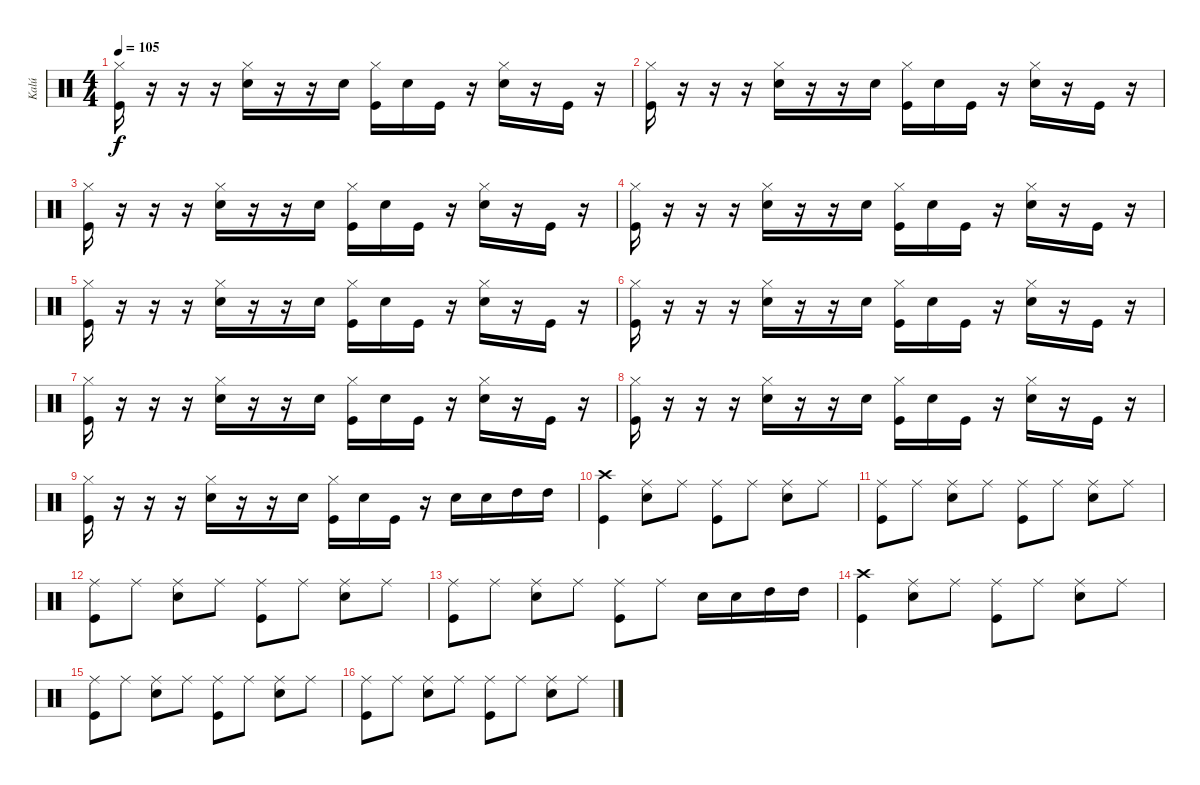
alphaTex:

\track ("Kalú" "Kalú") {instrument percussion}
\staff {score}
\articulation defaults
\ts (4 4)
\tempo 105
\clef neutral
\ks c
("Hi-Hat (closed)" "Kick (hit)").16{dy f} r.16 r.16 r.16 ("Hi-Hat (closed)" "Electric Snare (hit)").16 r.16 r.16 "Electric Snare (hit)".16 ("Hi-Hat (closed)" "Kick (hit)").16 "Electric Snare (hit)".16 "Kick (hit)".16 r.16 ("Hi-Hat (closed)" "Electric Snare (hit)").16 r.16 "Kick (hit)".16 r.16 |
("Hi-Hat (closed)" "Kick (hit)").16 r.16 r.16 r.16 ("Hi-Hat (closed)" "Electric Snare (hit)").16 r.16 r.16 "Electric Snare (hit)".16 ("Hi-Hat (closed)" "Kick (hit)").16 "Electric Snare (hit)".16 "Kick (hit)".16 r.16 ("Hi-Hat (closed)" "Electric Snare (hit)").16 r.16 "Kick (hit)".16 r.16 |
("Hi-Hat (closed)" "Kick (hit)").16 r.16 r.16 r.16 ("Hi-Hat (closed)" "Electric Snare (hit)").16 r.16 r.16 "Electric Snare (hit)".16 ("Hi-Hat (closed)" "Kick (hit)").16 "Electric Snare (hit)".16 "Kick (hit)".16 r.16 ("Hi-Hat (closed)" "Electric Snare (hit)").16 r.16 "Kick (hit)".16 r.16 |
("Hi-Hat (closed)" "Kick (hit)").16 r.16 r.16 r.16 ("Hi-Hat (closed)" "Electric Snare (hit)").16 r.16 r.16 "Electric Snare (hit)".16 ("Hi-Hat (closed)" "Kick (hit)").16 "Electric Snare (hit)".16 "Kick (hit)".16 r.16 ("Hi-Hat (closed)" "Electric Snare (hit)").16 r.16 "Kick (hit)".16 r.16 |
("Hi-Hat (closed)" "Kick (hit)").16 r.16 r.16 r.16 ("Hi-Hat (closed)" "Electric Snare (hit)").16 r.16 r.16 "Electric Snare (hit)".16 ("Hi-Hat (closed)" "Kick (hit)").16 "Electric Snare (hit)".16 "Kick (hit)".16 r.16 ("Hi-Hat (closed)" "Electric Snare (hit)").16 r.16 "Kick (hit)".16 r.16 |
("Hi-Hat (closed)" "Kick (hit)").16 r.16 r.16 r.16 ("Hi-Hat (closed)" "Electric Snare (hit)").16 r.16 r.16 "Electric Snare (hit)".16 ("Hi-Hat (closed)" "Kick (hit)").16 "Electric Snare (hit)".16 "Kick (hit)".16 r.16 ("Hi-Hat (closed)" "Electric Snare (hit)").16 r.16 "Kick (hit)".16 r.16 |
("Hi-Hat (closed)" "Kick (hit)").16 r.16 r.16 r.16 ("Hi-Hat (closed)" "Electric Snare (hit)").16 r.16 r.16 "Electric Snare (hit)".16 ("Hi-Hat (closed)" "Kick (hit)").16 "Electric Snare (hit)".16 "Kick (hit)".16 r.16 ("Hi-Hat (closed)" "Electric Snare (hit)").16 r.16 "Kick (hit)".16 r.16 |
("Hi-Hat (closed)" "Kick (hit)").16 r.16 r.16 r.16 ("Hi-Hat (closed)" "Electric Snare (hit)").16 r.16 r.16 "Electric Snare (hit)".16 ("Hi-Hat (closed)" "Kick (hit)").16 "Electric Snare (hit)".16 "Kick (hit)".16 r.16 ("Hi-Hat (closed)" "Electric Snare (hit)").16 r.16 "Kick (hit)".16 r.16 |
("Hi-Hat (closed)" "Kick (hit)").16 r.16 r.16 r.16 ("Hi-Hat (closed)" "Electric Snare (hit)").16 r.16 r.16 "Electric Snare (hit)".16 ("Hi-Hat (closed)" "Kick (hit)").16 "Electric Snare (hit)".16 "Kick (hit)".16 r.16 "Electric Snare (hit)".16 "Electric Snare (hit)".16 "High Tom (hit)".16 "High Tom (hit)".16 |
("Crash high (hit)" "Kick (hit)").4 ("Ride (middle)" "Electric Snare (hit)").8 "Ride (middle)".8 ("Ride (middle)" "Kick (hit)").8 "Ride (middle)".8 ("Ride (middle)" "Electric Snare (hit)").8 "Ride (middle)".8 |
("Ride (middle)" "Kick (hit)").8 "Ride (middle)".8 ("Ride (middle)" "Electric Snare (hit)").8 "Ride (middle)".8 ("Ride (middle)" "Kick (hit)").8 "Ride (middle)".8 ("Ride (middle)" "Electric Snare (hit)").8 "Ride (middle)".8 |
("Ride (middle)" "Kick (hit)").8 "Ride (middle)".8 ("Ride (middle)" "Electric Snare (hit)").8 "Ride (middle)".8 ("Ride (middle)" "Kick (hit)").8 "Ride (middle)".8 ("Ride (middle)" "Electric Snare (hit)").8 "Ride (middle)".8 |
("Ride (middle)" "Kick (hit)").8 "Ride (middle)".8 ("Ride (middle)" "Electric Snare (hit)").8 "Ride (middle)".8 ("Ride (middle)" "Kick (hit)").8 "Ride (middle)".8 "Electric Snare (hit)".16 "Electric Snare (hit)".16 "High Tom (hit)".16 "High Tom (hit)".16 |
("Crash high (hit)" "Kick (hit)").4 ("Ride (middle)" "Electric Snare (hit)").8 "Ride (middle)".8 ("Ride (middle)" "Kick (hit)").8 "Ride (middle)".8 ("Ride (middle)" "Electric Snare (hit)").8 "Ride (middle)".8 |
("Ride (middle)" "Kick (hit)").8 "Ride (middle)".8 ("Ride (middle)" "Electric Snare (hit)").8 "Ride (middle)".8 ("Ride (middle)" "Kick (hit)").8 "Ride (middle)".8 ("Ride (middle)" "Electric Snare (hit)").8 "Ride (middle)".8 |
("Ride (middle)" "Kick (hit)").8 "Ride (middle)".8 ("Ride (middle)" "Electric Snare (hit)").8 "Ride (middle)".8 ("Ride (middle)" "Kick (hit)").8 "Ride (middle)".8 ("Ride (middle)" "Electric Snare (hit)").8 "Ride (middle)".8
